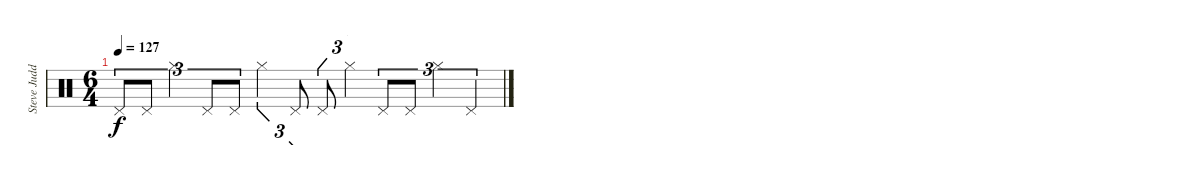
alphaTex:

\track ("Steve Judd - Drums" "Steve Judd") {mute instrument percussion}
\staff {score}
\articulation defaults
\ts (6 4)
\tempo 127
\clef neutral
\ks c "Pedal Hi-Hat (hit)".8{tu (3 2) dy f} "Pedal Hi-Hat (hit)".8{tu (3 2)} "Hi-Hat (closed)".4{tu (3 2)} "Pedal Hi-Hat (hit)".8{tu (3 2)} "Pedal Hi-Hat (hit)".8{tu (3 2)} "Hi-Hat (closed)".4{tu (3 2)} "Pedal Hi-Hat (hit)".8{tu (3 2)} "Pedal Hi-Hat (hit)".8{tu (3 2)} "Hi-Hat (closed)".4{tu (3 2)} "Pedal Hi-Hat (hit)".8{tu (3 2)} "Pedal Hi-Hat (hit)".8{tu (3 2)} "Hi-Hat (closed)".4{tu (3 2)} "Pedal Hi-Hat (hit)".4{tu (3 2)}
